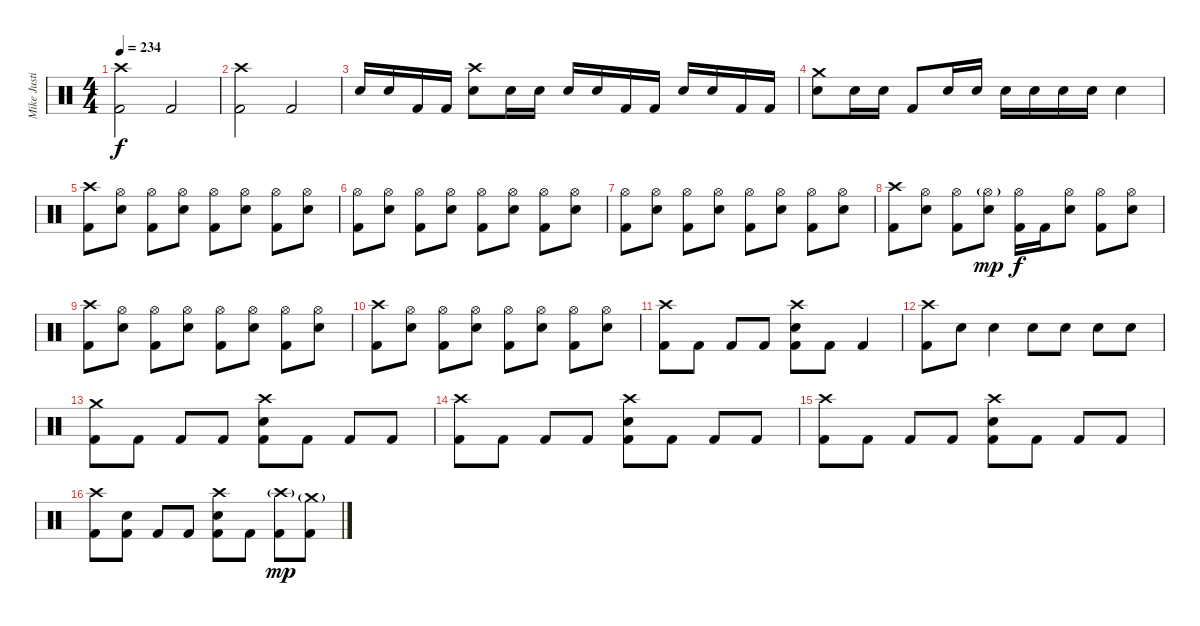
\track ("Mike Justian (Drums)" "Mike Justi") {instrument percussion}
\staff {score}
\articulation defaults
\ts (4 4)
\tempo 234
\clef neutral
\ks c
("Crash high (hit)" "Kick (hit) 2").2{dy f} "Kick (hit) 2".2 |
("Crash high (hit)" "Kick (hit) 2").2 "Kick (hit) 2".2 |
"Snare (hit) 2".16 "Snare (hit) 2".16 "Kick (hit) 2".16 "Kick (hit) 2".16 ("Crash high (hit)" "Snare (hit) 2").8 "Snare (hit) 2".16 "Snare (hit) 2".16 "Snare (hit) 2".16 "Snare (hit) 2".16 "Kick (hit) 2".16 "Kick (hit) 2".16 "Snare (hit) 2".16 "Snare (hit) 2".16 "Kick (hit) 2".16 "Kick (hit) 2".16 |
("Crash medium (hit)" "Snare (hit) 2").8 "Snare (hit) 2".16 "Snare (hit) 2".16 "Kick (hit) 2".8 "Snare (hit) 2".16 "Snare (hit) 2".16 "Snare (hit) 2".16 "Snare (hit) 2".16 "Snare (hit) 2".16 "Snare (hit) 2".16 "Snare (hit) 2".4 |
("Crash high (hit)" "Kick (hit) 2").8 ("Hi-Hat (open)" "Snare (hit) 2").8 ("Hi-Hat (open)" "Kick (hit) 2").8 ("Hi-Hat (open)" "Snare (hit) 2").8 ("Hi-Hat (open)" "Kick (hit) 2").8 ("Hi-Hat (open)" "Snare (hit) 2").8 ("Hi-Hat (open)" "Kick (hit) 2").8 ("Hi-Hat (open)" "Snare (hit) 2").8 |
("Hi-Hat (open)" "Kick (hit) 2").8 ("Hi-Hat (open)" "Snare (hit) 2").8 ("Hi-Hat (open)" "Kick (hit) 2").8 ("Hi-Hat (open)" "Snare (hit) 2").8 ("Hi-Hat (open)" "Kick (hit) 2").8 ("Hi-Hat (open)" "Snare (hit) 2").8 ("Hi-Hat (open)" "Kick (hit) 2").8 ("Hi-Hat (open)" "Snare (hit) 2").8 |
("Hi-Hat (open)" "Kick (hit) 2").8 ("Hi-Hat (open)" "Snare (hit) 2").8 ("Hi-Hat (open)" "Kick (hit) 2").8 ("Hi-Hat (open)" "Snare (hit) 2").8 ("Hi-Hat (open)" "Kick (hit) 2").8 ("Hi-Hat (open)" "Snare (hit) 2").8 ("Hi-Hat (open)" "Kick (hit) 2").8 ("Hi-Hat (open)" "Snare (hit) 2").8 |
("Crash high (hit)" "Kick (hit) 2").8 ("Hi-Hat (open)" "Snare (hit) 2").8 ("Hi-Hat (open)" "Kick (hit) 2").8 ("Hi-Hat (open)"{g} "Snare (hit) 2").8{dy mp} ("Hi-Hat (open)" "Kick (hit) 2").16{dy f} "Kick (hit) 2".16 ("Hi-Hat (open)" "Snare (hit) 2").8 ("Hi-Hat (open)" "Kick (hit) 2").8 ("Hi-Hat (open)" "Snare (hit) 2").8 |
("Crash high (hit)" "Kick (hit) 2").8 ("Hi-Hat (open)" "Snare (hit) 2").8 ("Hi-Hat (open)" "Kick (hit) 2").8 ("Hi-Hat (open)" "Snare (hit) 2").8 ("Hi-Hat (open)" "Kick (hit) 2").8 ("Hi-Hat (open)" "Snare (hit) 2").8 ("Hi-Hat (open)" "Kick (hit) 2").8 ("Hi-Hat (open)" "Snare (hit) 2").8 |
("Crash high (hit)" "Kick (hit) 2").8 ("Hi-Hat (open)" "Snare (hit) 2").8 ("Hi-Hat (open)" "Kick (hit) 2").8 ("Hi-Hat (open)" "Snare (hit) 2").8 ("Hi-Hat (open)" "Kick (hit) 2").8 ("Hi-Hat (open)" "Snare (hit) 2").8 ("Hi-Hat (open)" "Kick (hit) 2").8 ("Hi-Hat (open)" "Snare (hit) 2").8 |
("Crash high (hit)" "Kick (hit) 2").8 "Kick (hit) 2".8 "Kick (hit) 2".8 "Kick (hit) 2".8 ("Kick (hit) 2" "Crash high (hit)" "Snare (hit) 2").8 "Kick (hit) 2".8 "Kick (hit) 2".4 |
("Crash high (hit)" "Kick (hit) 2").8 "Snare (hit) 2".8 "Snare (hit) 2".4 "Snare (hit) 2".8 "Snare (hit) 2".8 "Snare (hit) 2".8 "Snare (hit) 2".8 |
("Crash medium (hit)" "Kick (hit) 2").8 "Kick (hit) 2".8 "Kick (hit) 2".8 "Kick (hit) 2".8 ("Crash high (hit)" "Snare (hit) 2" "Kick (hit) 2").8 "Kick (hit) 2".8 "Kick (hit) 2".8 "Kick (hit) 2".8 |
("Crash high (hit)" "Kick (hit) 2").8 "Kick (hit) 2".8 "Kick (hit) 2".8 "Kick (hit) 2".8 ("Crash high (hit)" "Snare (hit) 2" "Kick (hit) 2").8 "Kick (hit) 2".8 "Kick (hit) 2".8 "Kick (hit) 2".8 |
("Crash high (hit)" "Kick (hit) 2").8 "Kick (hit) 2".8 "Kick (hit) 2".8 "Kick (hit) 2".8 ("Crash high (hit)" "Snare (hit) 2" "Kick (hit) 2").8 "Kick (hit) 2".8 "Kick (hit) 2".8 "Kick (hit) 2".8 |
("Crash high (hit)" "Kick (hit) 2").8 ("Snare (hit) 2" "Kick (hit) 2").8 "Kick (hit) 2".8 "Kick (hit) 2".8 ("Crash high (hit)" "Snare (hit) 2" "Kick (hit) 2").8 "Kick (hit) 2".8 ("Crash high (hit)"{g} "Kick (hit) 2").8{dy mp} ("Crash medium (hit)"{g} "Kick (hit) 2").8
